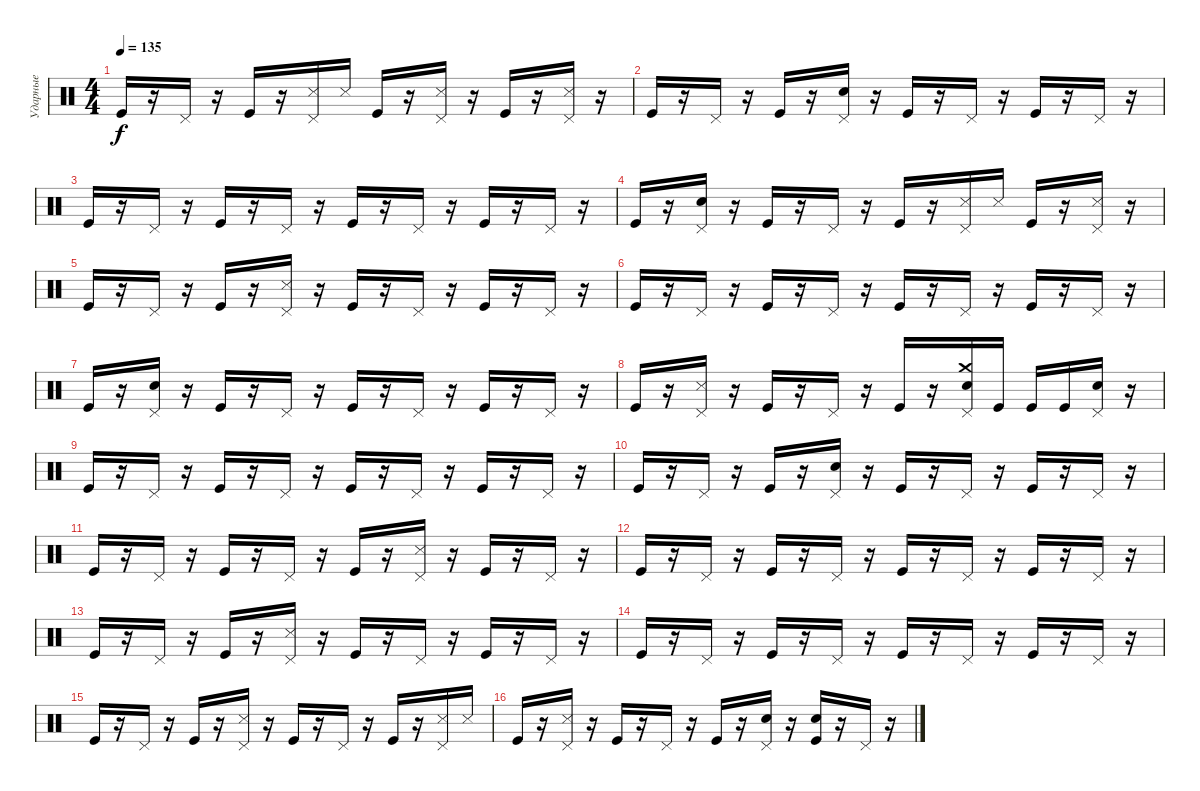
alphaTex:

\track ("Ударные" "Ударные") {instrument percussion}
\staff {score}
\articulation defaults
\ts (4 4)
\tempo 135
\clef neutral
\ks c "Kick (hit)".16{dy f}
r.16 "Pedal Hi-Hat (hit)".16 r.16 "Kick (hit)".16 r.16 ("Snare (side stick) 3" "Pedal Hi-Hat (hit)").16 "Snare (side stick) 3".16 "Kick (hit)".16 r.16 ("Snare (side stick) 3" "Pedal Hi-Hat (hit)").16 r.16 "Kick (hit)".16 r.16 ("Snare (side stick) 3" "Pedal Hi-Hat (hit)").16 r.16 |
"Kick (hit)".16 r.16 "Pedal Hi-Hat (hit)".16 r.16 "Kick (hit)".16 r.16 ("Snare (hit) 2" "Pedal Hi-Hat (hit)").16 r.16 "Kick (hit)".16 r.16 "Pedal Hi-Hat (hit)".16 r.16 "Kick (hit)".16 r.16 "Pedal Hi-Hat (hit)".16 r.16 |
"Kick (hit)".16 r.16 "Pedal Hi-Hat (hit)".16 r.16 "Kick (hit)".16 r.16 "Pedal Hi-Hat (hit)".16 r.16 "Kick (hit)".16 r.16 "Pedal Hi-Hat (hit)".16 r.16 "Kick (hit)".16 r.16 "Pedal Hi-Hat (hit)".16 r.16 |
"Kick (hit)".16 r.16 ("Snare (hit) 2" "Pedal Hi-Hat (hit)").16 r.16 "Kick (hit)".16 r.16 "Pedal Hi-Hat (hit)".16 r.16 "Kick (hit)".16 r.16 ("Snare (side stick) 3" "Pedal Hi-Hat (hit)").16 "Snare (side stick) 3".16 "Kick (hit)".16 r.16 ("Snare (side stick) 3" "Pedal Hi-Hat (hit)").16 r.16 |
"Kick (hit)".16 r.16 "Pedal Hi-Hat (hit)".16 r.16 "Kick (hit)".16 r.16 ("Snare (side stick) 3" "Pedal Hi-Hat (hit)").16 r.16 "Kick (hit)".16 r.16 "Pedal Hi-Hat (hit)".16 r.16 "Kick (hit)".16 r.16 "Pedal Hi-Hat (hit)".16 r.16 |
"Kick (hit)".16 r.16 "Pedal Hi-Hat (hit)".16 r.16 "Kick (hit)".16 r.16 "Pedal Hi-Hat (hit)".16 r.16 "Kick (hit)".16 r.16 "Pedal Hi-Hat (hit)".16 r.16 "Kick (hit)".16 r.16 "Pedal Hi-Hat (hit)".16 r.16 |
"Kick (hit)".16 r.16 ("Snare (hit) 2" "Pedal Hi-Hat (hit)").16 r.16 "Kick (hit)".16 r.16 "Pedal Hi-Hat (hit)".16 r.16 "Kick (hit)".16 r.16 "Pedal Hi-Hat (hit)".16 r.16 "Kick (hit)".16 r.16 "Pedal Hi-Hat (hit)".16 r.16 |
"Kick (hit)".16 r.16 ("Snare (side stick) 3" "Pedal Hi-Hat (hit)").16 r.16 "Kick (hit)".16 r.16 "Pedal Hi-Hat (hit)".16 r.16 "Kick (hit)".16 r.16 ("Crash medium (hit)" "Electric Snare (hit)" "Pedal Hi-Hat (hit)").16 "Kick (hit)".16 "Kick (hit)".16 "Kick (hit)".16 ("Electric Snare (hit)" "Pedal Hi-Hat (hit)").16 r.16 |
"Kick (hit)".16 r.16 "Pedal Hi-Hat (hit)".16 r.16 "Kick (hit)".16 r.16 "Pedal Hi-Hat (hit)".16 r.16 "Kick (hit)".16 r.16 "Pedal Hi-Hat (hit)".16 r.16 "Kick (hit)".16 r.16 "Pedal Hi-Hat (hit)".16 r.16 |
"Kick (hit)".16 r.16 "Pedal Hi-Hat (hit)".16 r.16 "Kick (hit)".16 r.16 ("Snare (hit) 2" "Pedal Hi-Hat (hit)").16 r.16 "Kick (hit)".16 r.16 "Pedal Hi-Hat (hit)".16 r.16 "Kick (hit)".16 r.16 "Pedal Hi-Hat (hit)".16 r.16 |
"Kick (hit)".16 r.16 "Pedal Hi-Hat (hit)".16 r.16 "Kick (hit)".16 r.16 "Pedal Hi-Hat (hit)".16 r.16 "Kick (hit)".16 r.16 ("Snare (side stick) 3" "Pedal Hi-Hat (hit)").16 r.16 "Kick (hit)".16 r.16 "Pedal Hi-Hat (hit)".16 r.16 |
"Kick (hit)".16 r.16 "Pedal Hi-Hat (hit)".16 r.16 "Kick (hit)".16 r.16 "Pedal Hi-Hat (hit)".16 r.16 "Kick (hit)".16 r.16 "Pedal Hi-Hat (hit)".16 r.16 "Kick (hit)".16 r.16 "Pedal Hi-Hat (hit)".16 r.16 |
"Kick (hit)".16 r.16 "Pedal Hi-Hat (hit)".16 r.16 "Kick (hit)".16 r.16 ("Snare (side stick) 3" "Pedal Hi-Hat (hit)").16 r.16 "Kick (hit)".16 r.16 "Pedal Hi-Hat (hit)".16 r.16 "Kick (hit)".16 r.16 "Pedal Hi-Hat (hit)".16 r.16 |
"Kick (hit)".16 r.16 "Pedal Hi-Hat (hit)".16 r.16 "Kick (hit)".16 r.16 "Pedal Hi-Hat (hit)".16 r.16 "Kick (hit)".16 r.16 "Pedal Hi-Hat (hit)".16 r.16 "Kick (hit)".16 r.16 "Pedal Hi-Hat (hit)".16 r.16 |
"Kick (hit)".16 r.16 "Pedal Hi-Hat (hit)".16 r.16 "Kick (hit)".16 r.16 ("Snare (side stick) 3" "Pedal Hi-Hat (hit)").16 r.16 "Kick (hit)".16 r.16 "Pedal Hi-Hat (hit)".16 r.16 "Kick (hit)".16 r.16 ("Snare (side stick) 3" "Pedal Hi-Hat (hit)").16 "Snare (side stick) 3".16 |
"Kick (hit)".16 r.16 ("Snare (side stick) 3" "Pedal Hi-Hat (hit)").16 r.16 "Kick (hit)".16 r.16 "Pedal Hi-Hat (hit)".16 r.16 "Kick (hit)".16 r.16 ("Snare (hit) 2" "Pedal Hi-Hat (hit)").16 r.16 ("Snare (hit) 2" "Kick (hit)").16 r.16 "Pedal Hi-Hat (hit)".16 r.16
